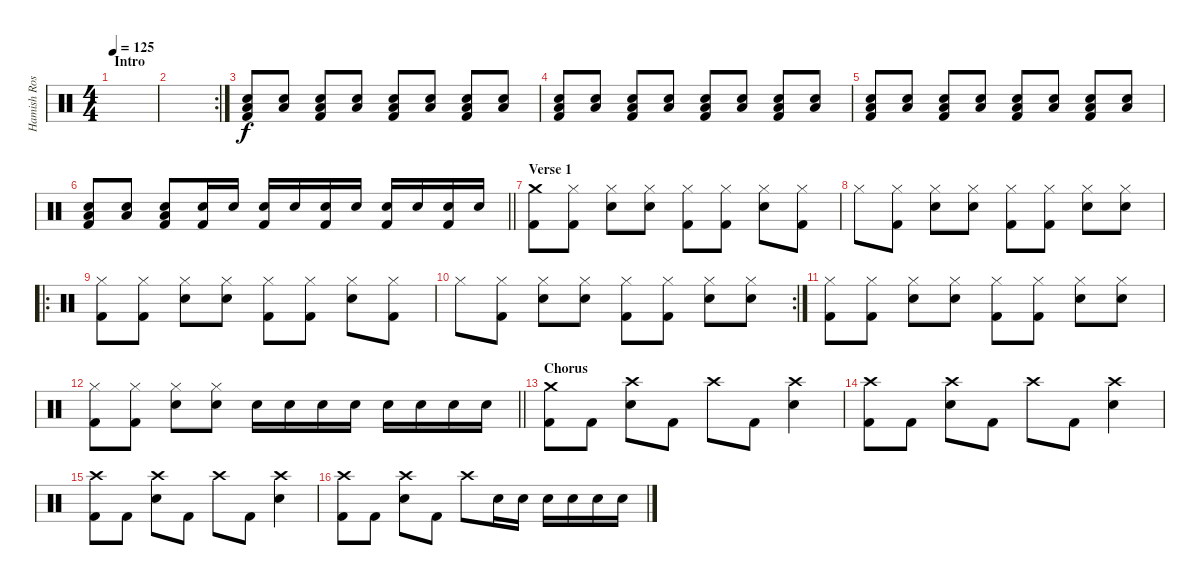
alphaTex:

\track ("Hamish Rosser" "Hamish Ros") {instrument percussion}
\staff {score}
\articulation defaults
\ts (4 4)
\section ("" "Intro")
\tempo 125
\clef neutral
\ks c
|
\rc 2
|
("Low Floor Tom (hit)" "Electric Snare (hit)" "Kick (hit) 2").8 ("Low Floor Tom (hit)" "Electric Snare (hit)").8 ("Low Floor Tom (hit)" "Electric Snare (hit)" "Kick (hit) 2").8 ("Low Floor Tom (hit)" "Electric Snare (hit)").8 ("Low Floor Tom (hit)" "Electric Snare (hit)" "Kick (hit) 2").8 ("Low Floor Tom (hit)" "Electric Snare (hit)").8 ("Low Floor Tom (hit)" "Electric Snare (hit)" "Kick (hit) 2").8 ("Low Floor Tom (hit)" "Electric Snare (hit)").8 |
("Low Floor Tom (hit)" "Electric Snare (hit)" "Kick (hit) 2").8 ("Low Floor Tom (hit)" "Electric Snare (hit)").8 ("Low Floor Tom (hit)" "Electric Snare (hit)" "Kick (hit) 2").8 ("Low Floor Tom (hit)" "Electric Snare (hit)").8 ("Low Floor Tom (hit)" "Electric Snare (hit)" "Kick (hit) 2").8 ("Low Floor Tom (hit)" "Electric Snare (hit)").8 ("Low Floor Tom (hit)" "Electric Snare (hit)" "Kick (hit) 2").8 ("Low Floor Tom (hit)" "Electric Snare (hit)").8 |
("Low Floor Tom (hit)" "Electric Snare (hit)" "Kick (hit) 2").8 ("Low Floor Tom (hit)" "Electric Snare (hit)").8 ("Low Floor Tom (hit)" "Electric Snare (hit)" "Kick (hit) 2").8 ("Low Floor Tom (hit)" "Electric Snare (hit)").8 ("Low Floor Tom (hit)" "Electric Snare (hit)" "Kick (hit) 2").8 ("Low Floor Tom (hit)" "Electric Snare (hit)").8 ("Low Floor Tom (hit)" "Electric Snare (hit)" "Kick (hit) 2").8 ("Low Floor Tom (hit)" "Electric Snare (hit)").8 |
\barLineRight lightlight
("Low Floor Tom (hit)" "Electric Snare (hit)" "Kick (hit) 2").8 ("Low Floor Tom (hit)" "Electric Snare (hit)").8 ("Low Floor Tom (hit)" "Electric Snare (hit)" "Kick (hit) 2").8 ("Electric Snare (hit)" "Kick (hit) 2").16 "Electric Snare (hit)".16 ("Electric Snare (hit)" "Kick (hit) 2").16 "Electric Snare (hit)".16 ("Electric Snare (hit)" "Kick (hit) 2").16 "Electric Snare (hit)".16 ("Electric Snare (hit)" "Kick (hit) 2").16 "Electric Snare (hit)".16 ("Electric Snare (hit)" "Kick (hit) 2").16 "Electric Snare (hit)".16 |
\section ("" "Verse 1")
("Crash medium (hit)" "Kick (hit) 2").8 ("Hi-Hat (closed)" "Kick (hit) 2").8 ("Hi-Hat (closed)" "Electric Snare (hit)").8 ("Hi-Hat (closed)" "Electric Snare (hit)").8 ("Hi-Hat (closed)" "Kick (hit) 2").8 ("Hi-Hat (closed)" "Kick (hit) 2").8 ("Hi-Hat (closed)" "Electric Snare (hit)").8 ("Hi-Hat (closed)" "Kick (hit) 2").8 |
"Hi-Hat (closed)".8 ("Hi-Hat (closed)" "Kick (hit) 2").8 ("Hi-Hat (closed)" "Electric Snare (hit)").8 ("Hi-Hat (closed)" "Electric Snare (hit)").8 ("Hi-Hat (closed)" "Kick (hit) 2").8 ("Hi-Hat (closed)" "Kick (hit) 2").8 ("Hi-Hat (closed)" "Electric Snare (hit)").8 ("Hi-Hat (closed)" "Electric Snare (hit)").8 |
\ro
("Hi-Hat (closed)" "Kick (hit) 2").8 ("Hi-Hat (closed)" "Kick (hit) 2").8 ("Hi-Hat (closed)" "Electric Snare (hit)").8 ("Hi-Hat (closed)" "Electric Snare (hit)").8 ("Hi-Hat (closed)" "Kick (hit) 2").8 ("Hi-Hat (closed)" "Kick (hit) 2").8 ("Hi-Hat (closed)" "Electric Snare (hit)").8 ("Hi-Hat (closed)" "Kick (hit) 2").8 |
\rc 2 "Hi-Hat (closed)".8
("Hi-Hat (closed)" "Kick (hit) 2").8 ("Hi-Hat (closed)" "Electric Snare (hit)").8 ("Hi-Hat (closed)" "Electric Snare (hit)").8 ("Hi-Hat (closed)" "Kick (hit) 2").8 ("Hi-Hat (closed)" "Kick (hit) 2").8 ("Hi-Hat (closed)" "Electric Snare (hit)").8 ("Hi-Hat (closed)" "Electric Snare (hit)").8 |
("Hi-Hat (closed)" "Kick (hit) 2").8 ("Hi-Hat (closed)" "Kick (hit) 2").8 ("Hi-Hat (closed)" "Electric Snare (hit)").8 ("Hi-Hat (closed)" "Electric Snare (hit)").8 ("Hi-Hat (closed)" "Kick (hit) 2").8 ("Hi-Hat (closed)" "Kick (hit) 2").8 ("Hi-Hat (closed)" "Electric Snare (hit)").8 ("Hi-Hat (closed)" "Electric Snare (hit)").8 |
\barLineRight lightlight
("Hi-Hat (closed)" "Kick (hit) 2").8 ("Hi-Hat (closed)" "Kick (hit) 2").8 ("Hi-Hat (closed)" "Electric Snare (hit)").8 ("Hi-Hat (closed)" "Electric Snare (hit)").8 "Electric Snare (hit)".16 "Electric Snare (hit)".16 "Electric Snare (hit)".16 "Electric Snare (hit)".16 "Electric Snare (hit)".16 "Electric Snare (hit)".16 "Electric Snare (hit)".16 "Electric Snare (hit)".16 |
\section ("" "Chorus")
("Crash medium (hit)" "Kick (hit) 2").8 "Kick (hit) 2".8 ("Crash high (hit)" "Electric Snare (hit)").8 "Kick (hit) 2".8 "Crash high (hit)".8 "Kick (hit) 2".8 ("Crash high (hit)" "Electric Snare (hit)").4 |
("Crash high (hit)" "Kick (hit) 2").8 "Kick (hit) 2".8 ("Crash high (hit)" "Electric Snare (hit)").8 "Kick (hit) 2".8 "Crash high (hit)".8 "Kick (hit) 2".8 ("Crash high (hit)" "Electric Snare (hit)").4 |
("Crash high (hit)" "Kick (hit) 2").8 "Kick (hit) 2".8 ("Crash high (hit)" "Electric Snare (hit)").8 "Kick (hit) 2".8 "Crash high (hit)".8 "Kick (hit) 2".8 ("Crash high (hit)" "Electric Snare (hit)").4 |
("Crash high (hit)" "Kick (hit) 2").8 "Kick (hit) 2".8 ("Crash high (hit)" "Electric Snare (hit)").8 "Kick (hit) 2".8 "Crash high (hit)".8 "Electric Snare (hit)".16 "Electric Snare (hit)".16 "Electric Snare (hit)".16 "Electric Snare (hit)".16 "Electric Snare (hit)".16 "Electric Snare (hit)".16
